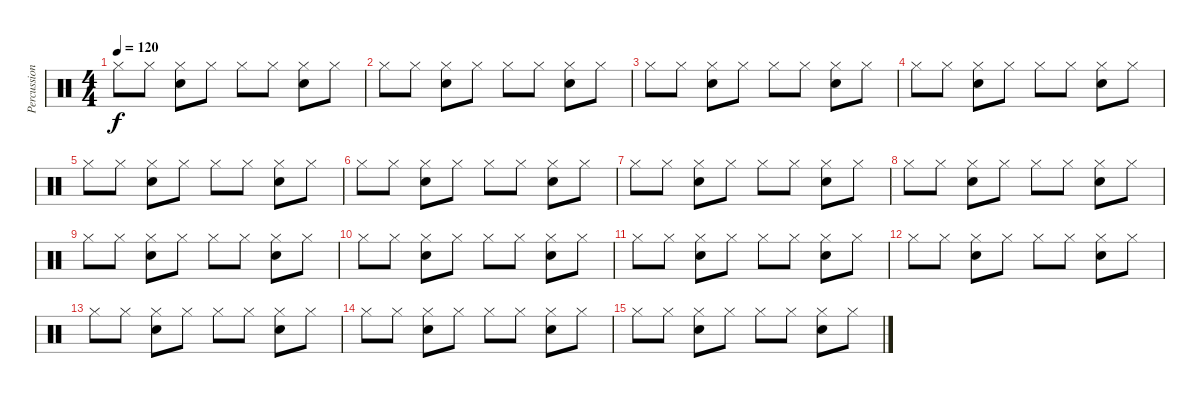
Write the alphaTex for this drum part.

\track ("Percussion      " "Percussion") {instrument percussion}
\staff {score}
\articulation defaults
\ts (4 4)
\tempo 120
\clef neutral
\ks c "Hi-Hat (closed)".8{dy f} "Hi-Hat (closed)".8
("Hi-Hat (closed)" "Snare (hit) 2").8 "Hi-Hat (closed)".8 "Hi-Hat (closed)".8 "Hi-Hat (closed)".8 ("Hi-Hat (closed)" "Snare (hit) 2").8 "Hi-Hat (closed)".8 |
"Hi-Hat (closed)".8 "Hi-Hat (closed)".8 ("Hi-Hat (closed)" "Snare (hit) 2").8 "Hi-Hat (closed)".8 "Hi-Hat (closed)".8 "Hi-Hat (closed)".8 ("Hi-Hat (closed)" "Snare (hit) 2").8 "Hi-Hat (closed)".8 |
"Hi-Hat (closed)".8 "Hi-Hat (closed)".8 ("Hi-Hat (closed)" "Snare (hit) 2").8 "Hi-Hat (closed)".8 "Hi-Hat (closed)".8 "Hi-Hat (closed)".8 ("Hi-Hat (closed)" "Snare (hit) 2").8 "Hi-Hat (closed)".8 |
"Hi-Hat (closed)".8 "Hi-Hat (closed)".8 ("Hi-Hat (closed)" "Snare (hit) 2").8 "Hi-Hat (closed)".8 "Hi-Hat (closed)".8 "Hi-Hat (closed)".8 ("Hi-Hat (closed)" "Snare (hit) 2").8 "Hi-Hat (closed)".8 |
"Hi-Hat (closed)".8 "Hi-Hat (closed)".8 ("Hi-Hat (closed)" "Snare (hit) 2").8 "Hi-Hat (closed)".8 "Hi-Hat (closed)".8 "Hi-Hat (closed)".8 ("Hi-Hat (closed)" "Snare (hit) 2").8 "Hi-Hat (closed)".8 |
"Hi-Hat (closed)".8 "Hi-Hat (closed)".8 ("Hi-Hat (closed)" "Snare (hit) 2").8 "Hi-Hat (closed)".8 "Hi-Hat (closed)".8 "Hi-Hat (closed)".8 ("Hi-Hat (closed)" "Snare (hit) 2").8 "Hi-Hat (closed)".8 |
"Hi-Hat (closed)".8 "Hi-Hat (closed)".8 ("Hi-Hat (closed)" "Snare (hit) 2").8 "Hi-Hat (closed)".8 "Hi-Hat (closed)".8 "Hi-Hat (closed)".8 ("Hi-Hat (closed)" "Snare (hit) 2").8 "Hi-Hat (closed)".8 |
"Hi-Hat (closed)".8 "Hi-Hat (closed)".8 ("Hi-Hat (closed)" "Snare (hit) 2").8 "Hi-Hat (closed)".8 "Hi-Hat (closed)".8 "Hi-Hat (closed)".8 ("Hi-Hat (closed)" "Snare (hit) 2").8 "Hi-Hat (closed)".8 |
"Hi-Hat (closed)".8 "Hi-Hat (closed)".8 ("Hi-Hat (closed)" "Snare (hit) 2").8 "Hi-Hat (closed)".8 "Hi-Hat (closed)".8 "Hi-Hat (closed)".8 ("Hi-Hat (closed)" "Snare (hit) 2").8 "Hi-Hat (closed)".8 |
"Hi-Hat (closed)".8 "Hi-Hat (closed)".8 ("Hi-Hat (closed)" "Snare (hit) 2").8 "Hi-Hat (closed)".8 "Hi-Hat (closed)".8 "Hi-Hat (closed)".8 ("Hi-Hat (closed)" "Snare (hit) 2").8 "Hi-Hat (closed)".8 |
"Hi-Hat (closed)".8 "Hi-Hat (closed)".8 ("Hi-Hat (closed)" "Snare (hit) 2").8 "Hi-Hat (closed)".8 "Hi-Hat (closed)".8 "Hi-Hat (closed)".8 ("Hi-Hat (closed)" "Snare (hit) 2").8 "Hi-Hat (closed)".8 |
"Hi-Hat (closed)".8 "Hi-Hat (closed)".8 ("Hi-Hat (closed)" "Snare (hit) 2").8 "Hi-Hat (closed)".8 "Hi-Hat (closed)".8 "Hi-Hat (closed)".8 ("Hi-Hat (closed)" "Snare (hit) 2").8 "Hi-Hat (closed)".8 |
"Hi-Hat (closed)".8 "Hi-Hat (closed)".8 ("Hi-Hat (closed)" "Snare (hit) 2").8 "Hi-Hat (closed)".8 "Hi-Hat (closed)".8 "Hi-Hat (closed)".8 ("Hi-Hat (closed)" "Snare (hit) 2").8 "Hi-Hat (closed)".8 |
"Hi-Hat (closed)".8 "Hi-Hat (closed)".8 ("Hi-Hat (closed)" "Snare (hit) 2").8 "Hi-Hat (closed)".8 "Hi-Hat (closed)".8 "Hi-Hat (closed)".8 ("Hi-Hat (closed)" "Snare (hit) 2").8 "Hi-Hat (closed)".8 |
"Hi-Hat (closed)".8 "Hi-Hat (closed)".8 ("Hi-Hat (closed)" "Snare (hit) 2").8 "Hi-Hat (closed)".8 "Hi-Hat (closed)".8 "Hi-Hat (closed)".8 ("Hi-Hat (closed)" "Snare (hit) 2").8 "Hi-Hat (closed)".8
